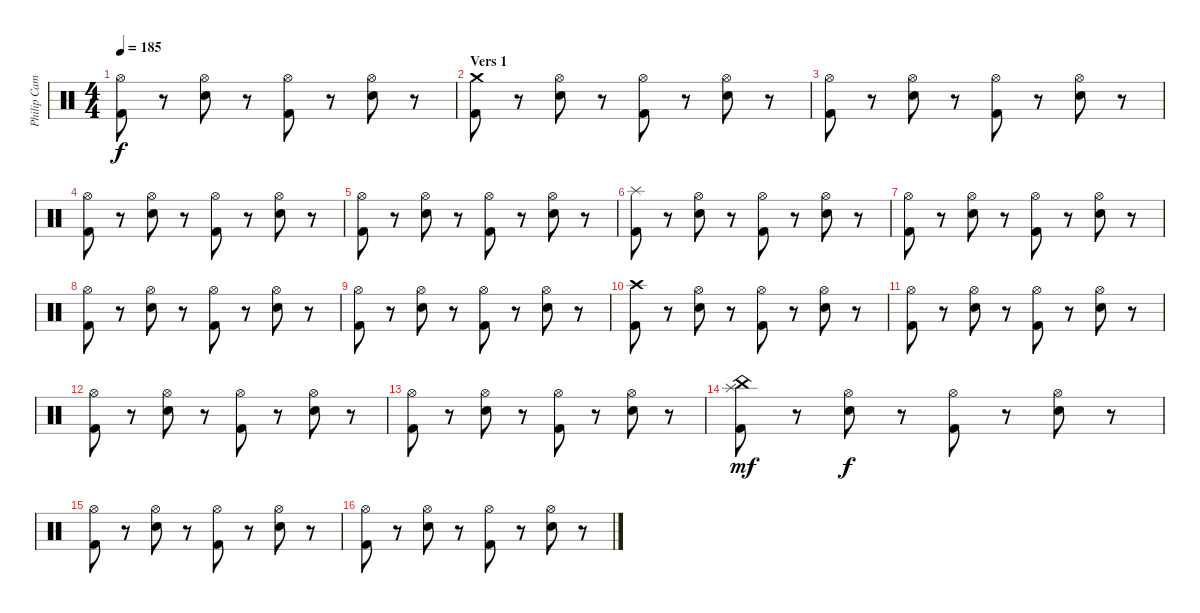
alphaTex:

\track ("Philip Campbell" "Philip Cam") {instrument percussion}
\staff {score}
\articulation defaults
\ts (4 4)
\tempo 185
\clef neutral
\ks c
("Hi-Hat (open)" "Kick (hit) 2").8{dy f} r.8 ("Hi-Hat (open)" "Electric Snare (hit)").8 r.8 ("Hi-Hat (open)" "Kick (hit) 2").8 r.8 ("Hi-Hat (open)" "Electric Snare (hit)").8 r.8 |
\section ("" "Vers 1")
("Crash medium (hit)" "Kick (hit) 2").8 r.8 ("Hi-Hat (open)" "Electric Snare (hit)").8 r.8 ("Hi-Hat (open)" "Kick (hit) 2").8 r.8 ("Hi-Hat (open)" "Electric Snare (hit)").8 r.8 |
("Hi-Hat (open)" "Kick (hit) 2").8 r.8 ("Hi-Hat (open)" "Electric Snare (hit)").8 r.8 ("Hi-Hat (open)" "Kick (hit) 2").8 r.8 ("Hi-Hat (open)" "Electric Snare (hit)").8 r.8 |
("Hi-Hat (open)" "Kick (hit) 2").8 r.8 ("Hi-Hat (open)" "Electric Snare (hit)").8 r.8 ("Hi-Hat (open)" "Kick (hit) 2").8 r.8 ("Hi-Hat (open)" "Electric Snare (hit)").8 r.8 |
("Hi-Hat (open)" "Kick (hit) 2").8 r.8 ("Hi-Hat (open)" "Electric Snare (hit)").8 r.8 ("Hi-Hat (open)" "Kick (hit) 2").8 r.8 ("Hi-Hat (open)" "Electric Snare (hit)").8 r.8 |
("Splash (hit)" "Kick (hit) 2").8 r.8 ("Hi-Hat (open)" "Electric Snare (hit)").8 r.8 ("Hi-Hat (open)" "Kick (hit) 2").8 r.8 ("Hi-Hat (open)" "Electric Snare (hit)").8 r.8 |
("Hi-Hat (open)" "Kick (hit) 2").8 r.8 ("Hi-Hat (open)" "Electric Snare (hit)").8 r.8 ("Hi-Hat (open)" "Kick (hit) 2").8 r.8 ("Hi-Hat (open)" "Electric Snare (hit)").8 r.8 |
("Hi-Hat (open)" "Kick (hit) 2").8 r.8 ("Hi-Hat (open)" "Electric Snare (hit)").8 r.8 ("Hi-Hat (open)" "Kick (hit) 2").8 r.8 ("Hi-Hat (open)" "Electric Snare (hit)").8 r.8 |
("Hi-Hat (open)" "Kick (hit) 2").8 r.8 ("Hi-Hat (open)" "Electric Snare (hit)").8 r.8 ("Hi-Hat (open)" "Kick (hit) 2").8 r.8 ("Hi-Hat (open)" "Electric Snare (hit)").8 r.8 |
("Crash high (hit)" "Kick (hit) 2").8 r.8 ("Hi-Hat (open)" "Electric Snare (hit)").8 r.8 ("Hi-Hat (open)" "Kick (hit) 2").8 r.8 ("Hi-Hat (open)" "Electric Snare (hit)").8 r.8 |
("Hi-Hat (open)" "Kick (hit) 2").8 r.8 ("Hi-Hat (open)" "Electric Snare (hit)").8 r.8 ("Hi-Hat (open)" "Kick (hit) 2").8 r.8 ("Hi-Hat (open)" "Electric Snare (hit)").8 r.8 |
("Hi-Hat (open)" "Kick (hit) 2").8 r.8 ("Hi-Hat (open)" "Electric Snare (hit)").8 r.8 ("Hi-Hat (open)" "Kick (hit) 2").8 r.8 ("Hi-Hat (open)" "Electric Snare (hit)").8 r.8 |
("Hi-Hat (open)" "Kick (hit) 2").8 r.8 ("Hi-Hat (open)" "Electric Snare (hit)").8 r.8 ("Hi-Hat (open)" "Kick (hit) 2").8 r.8 ("Hi-Hat (open)" "Electric Snare (hit)").8 r.8 |
("Splash (hit)" "China (hit)" "Kick (hit) 2").8{dy mf} r.8 ("Hi-Hat (open)" "Electric Snare (hit)").8{dy f} r.8 ("Hi-Hat (open)" "Kick (hit) 2").8 r.8 ("Hi-Hat (open)" "Electric Snare (hit)").8 r.8 |
("Hi-Hat (open)" "Kick (hit) 2").8 r.8 ("Hi-Hat (open)" "Electric Snare (hit)").8 r.8 ("Hi-Hat (open)" "Kick (hit) 2").8 r.8 ("Hi-Hat (open)" "Electric Snare (hit)").8 r.8 |
("Hi-Hat (open)" "Kick (hit) 2").8 r.8 ("Hi-Hat (open)" "Electric Snare (hit)").8 r.8 ("Hi-Hat (open)" "Kick (hit) 2").8 r.8 ("Hi-Hat (open)" "Electric Snare (hit)").8 r.8
